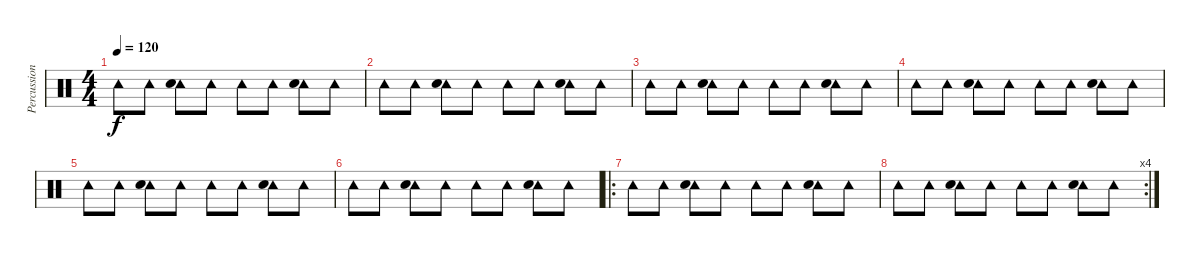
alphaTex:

\track ("Percussions (Moe Tucker)" "Percussion") {instrument percussion}
\staff {score}
\articulation defaults
\ts (4 4)
\tempo 120
\clef neutral
\ks c "Tambourine (hit)".8{dy f} "Tambourine (hit)".8
("Tambourine (hit)" "Snare (hit) 2").8 "Tambourine (hit)".8 "Tambourine (hit)".8 "Tambourine (hit)".8 ("Tambourine (hit)" "Snare (hit) 2").8 "Tambourine (hit)".8 |
"Tambourine (hit)".8 "Tambourine (hit)".8 ("Tambourine (hit)" "Snare (hit) 2").8 "Tambourine (hit)".8 "Tambourine (hit)".8 "Tambourine (hit)".8 ("Tambourine (hit)" "Snare (hit) 2").8 "Tambourine (hit)".8 |
"Tambourine (hit)".8 "Tambourine (hit)".8 ("Tambourine (hit)" "Snare (hit) 2").8 "Tambourine (hit)".8 "Tambourine (hit)".8 "Tambourine (hit)".8 ("Tambourine (hit)" "Snare (hit) 2").8 "Tambourine (hit)".8 |
"Tambourine (hit)".8 "Tambourine (hit)".8 ("Tambourine (hit)" "Snare (hit) 2").8 "Tambourine (hit)".8 "Tambourine (hit)".8 "Tambourine (hit)".8 ("Tambourine (hit)" "Snare (hit) 2").8 "Tambourine (hit)".8 |
"Tambourine (hit)".8 "Tambourine (hit)".8 ("Tambourine (hit)" "Snare (hit) 2").8 "Tambourine (hit)".8 "Tambourine (hit)".8 "Tambourine (hit)".8 ("Tambourine (hit)" "Snare (hit) 2").8 "Tambourine (hit)".8 |
"Tambourine (hit)".8 "Tambourine (hit)".8 ("Tambourine (hit)" "Snare (hit) 2").8 "Tambourine (hit)".8 "Tambourine (hit)".8 "Tambourine (hit)".8 ("Tambourine (hit)" "Snare (hit) 2").8 "Tambourine (hit)".8 |
\ro "Tambourine (hit)".8 "Tambourine (hit)".8
("Tambourine (hit)" "Snare (hit) 2").8 "Tambourine (hit)".8 "Tambourine (hit)".8 "Tambourine (hit)".8 ("Tambourine (hit)" "Snare (hit) 2").8 "Tambourine (hit)".8 |
\rc 4 "Tambourine (hit)".8 "Tambourine (hit)".8
("Tambourine (hit)" "Snare (hit) 2").8 "Tambourine (hit)".8 "Tambourine (hit)".8 "Tambourine (hit)".8 ("Tambourine (hit)" "Snare (hit) 2").8 "Tambourine (hit)".8
